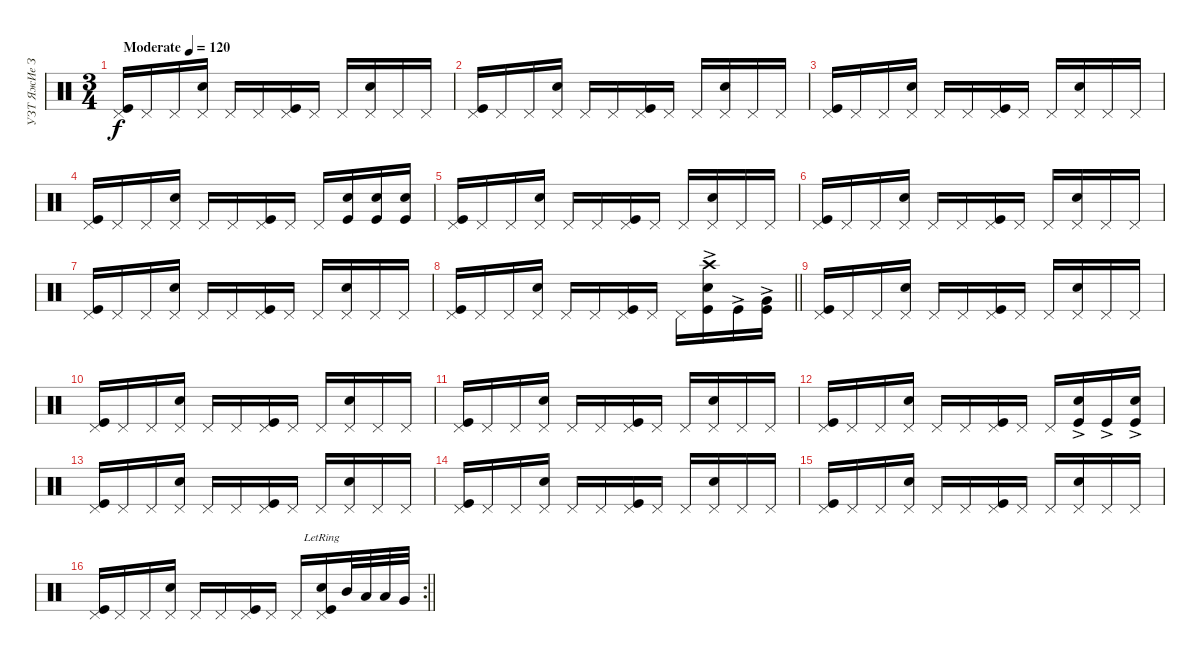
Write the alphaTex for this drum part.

\track ("УЗТ ЯжИе Зн" "УЗТ ЯжИе З") {instrument percussion}
\staff {score}
\articulation defaults
\ts (3 4)
\tempo (120 "Moderate")
\clef neutral
\ks c
("Pedal Hi-Hat (hit)" "Kick (hit)").16{dy f} "Pedal Hi-Hat (hit)".16 "Pedal Hi-Hat (hit)".16 ("Pedal Hi-Hat (hit)" "Snare (hit) 2").16 "Pedal Hi-Hat (hit)".16 "Pedal Hi-Hat (hit)".16 ("Pedal Hi-Hat (hit)" "Kick (hit)").16 "Pedal Hi-Hat (hit)".16 "Pedal Hi-Hat (hit)".16 ("Pedal Hi-Hat (hit)" "Snare (hit) 2").16 "Pedal Hi-Hat (hit)".16 "Pedal Hi-Hat (hit)".16 |
("Pedal Hi-Hat (hit)" "Kick (hit)").16 "Pedal Hi-Hat (hit)".16 "Pedal Hi-Hat (hit)".16 ("Pedal Hi-Hat (hit)" "Snare (hit) 2").16 "Pedal Hi-Hat (hit)".16 "Pedal Hi-Hat (hit)".16 ("Pedal Hi-Hat (hit)" "Kick (hit)").16 "Pedal Hi-Hat (hit)".16 "Pedal Hi-Hat (hit)".16 ("Pedal Hi-Hat (hit)" "Snare (hit) 2").16 "Pedal Hi-Hat (hit)".16 "Pedal Hi-Hat (hit)".16 |
("Pedal Hi-Hat (hit)" "Kick (hit)").16 "Pedal Hi-Hat (hit)".16 "Pedal Hi-Hat (hit)".16 ("Pedal Hi-Hat (hit)" "Snare (hit) 2").16 "Pedal Hi-Hat (hit)".16 "Pedal Hi-Hat (hit)".16 ("Pedal Hi-Hat (hit)" "Kick (hit)").16 "Pedal Hi-Hat (hit)".16 "Pedal Hi-Hat (hit)".16 ("Pedal Hi-Hat (hit)" "Snare (hit) 2").16 "Pedal Hi-Hat (hit)".16 "Pedal Hi-Hat (hit)".16 |
("Pedal Hi-Hat (hit)" "Kick (hit)").16 "Pedal Hi-Hat (hit)".16 "Pedal Hi-Hat (hit)".16 ("Pedal Hi-Hat (hit)" "Snare (hit) 2").16 "Pedal Hi-Hat (hit)".16 "Pedal Hi-Hat (hit)".16 ("Pedal Hi-Hat (hit)" "Kick (hit)").16 "Pedal Hi-Hat (hit)".16 "Pedal Hi-Hat (hit)".16 ("Snare (hit) 2" "Kick (hit)").16 ("Snare (hit) 2" "Kick (hit)").16 ("Snare (hit) 2" "Kick (hit)").16 |
("Pedal Hi-Hat (hit)" "Kick (hit)").16 "Pedal Hi-Hat (hit)".16 "Pedal Hi-Hat (hit)".16 ("Pedal Hi-Hat (hit)" "Snare (hit) 2").16 "Pedal Hi-Hat (hit)".16 "Pedal Hi-Hat (hit)".16 ("Pedal Hi-Hat (hit)" "Kick (hit)").16 "Pedal Hi-Hat (hit)".16 "Pedal Hi-Hat (hit)".16 ("Pedal Hi-Hat (hit)" "Snare (hit) 2").16 "Pedal Hi-Hat (hit)".16 "Pedal Hi-Hat (hit)".16 |
("Pedal Hi-Hat (hit)" "Kick (hit)").16 "Pedal Hi-Hat (hit)".16 "Pedal Hi-Hat (hit)".16 ("Pedal Hi-Hat (hit)" "Snare (hit) 2").16 "Pedal Hi-Hat (hit)".16 "Pedal Hi-Hat (hit)".16 ("Pedal Hi-Hat (hit)" "Kick (hit)").16 "Pedal Hi-Hat (hit)".16 "Pedal Hi-Hat (hit)".16 ("Pedal Hi-Hat (hit)" "Snare (hit) 2").16 "Pedal Hi-Hat (hit)".16 "Pedal Hi-Hat (hit)".16 |
("Pedal Hi-Hat (hit)" "Kick (hit)").16 "Pedal Hi-Hat (hit)".16 "Pedal Hi-Hat (hit)".16 ("Pedal Hi-Hat (hit)" "Snare (hit) 2").16 "Pedal Hi-Hat (hit)".16 "Pedal Hi-Hat (hit)".16 ("Pedal Hi-Hat (hit)" "Kick (hit)").16 "Pedal Hi-Hat (hit)".16 "Pedal Hi-Hat (hit)".16 ("Pedal Hi-Hat (hit)" "Snare (hit) 2").16 "Pedal Hi-Hat (hit)".16 "Pedal Hi-Hat (hit)".16 |
\barLineRight lightlight
("Pedal Hi-Hat (hit)" "Kick (hit)").16 "Pedal Hi-Hat (hit)".16 "Pedal Hi-Hat (hit)".16 ("Pedal Hi-Hat (hit)" "Snare (hit) 2").16 "Pedal Hi-Hat (hit)".16 "Pedal Hi-Hat (hit)".16 ("Pedal Hi-Hat (hit)" "Kick (hit)").16 "Pedal Hi-Hat (hit)".16 "Pedal Hi-Hat (hit)".16 ("Crash high (hit)" "Snare (hit) 2"{ac} "Kick (hit)").16 "Kick (hit)"{ac}.16 ("Very Low Tom (hit)"{ac} "Kick (hit)").16 |
("Pedal Hi-Hat (hit)" "Kick (hit)").16 "Pedal Hi-Hat (hit)".16 "Pedal Hi-Hat (hit)".16 ("Pedal Hi-Hat (hit)" "Snare (hit) 2").16 "Pedal Hi-Hat (hit)".16 "Pedal Hi-Hat (hit)".16 ("Pedal Hi-Hat (hit)" "Kick (hit)").16 "Pedal Hi-Hat (hit)".16 "Pedal Hi-Hat (hit)".16 ("Pedal Hi-Hat (hit)" "Snare (hit) 2").16 "Pedal Hi-Hat (hit)".16 "Pedal Hi-Hat (hit)".16 |
("Pedal Hi-Hat (hit)" "Kick (hit)").16 "Pedal Hi-Hat (hit)".16 "Pedal Hi-Hat (hit)".16 ("Pedal Hi-Hat (hit)" "Snare (hit) 2").16 "Pedal Hi-Hat (hit)".16 "Pedal Hi-Hat (hit)".16 ("Pedal Hi-Hat (hit)" "Kick (hit)").16 "Pedal Hi-Hat (hit)".16 "Pedal Hi-Hat (hit)".16 ("Pedal Hi-Hat (hit)" "Snare (hit) 2").16 "Pedal Hi-Hat (hit)".16 "Pedal Hi-Hat (hit)".16 |
("Pedal Hi-Hat (hit)" "Kick (hit)").16 "Pedal Hi-Hat (hit)".16 "Pedal Hi-Hat (hit)".16 ("Pedal Hi-Hat (hit)" "Snare (hit) 2").16 "Pedal Hi-Hat (hit)".16 "Pedal Hi-Hat (hit)".16 ("Pedal Hi-Hat (hit)" "Kick (hit)").16 "Pedal Hi-Hat (hit)".16 "Pedal Hi-Hat (hit)".16 ("Pedal Hi-Hat (hit)" "Snare (hit) 2").16 "Pedal Hi-Hat (hit)".16 "Pedal Hi-Hat (hit)".16 |
("Pedal Hi-Hat (hit)" "Kick (hit)").16 "Pedal Hi-Hat (hit)".16 "Pedal Hi-Hat (hit)".16 ("Pedal Hi-Hat (hit)" "Snare (hit) 2").16 "Pedal Hi-Hat (hit)".16 "Pedal Hi-Hat (hit)".16 ("Pedal Hi-Hat (hit)" "Kick (hit)").16 "Pedal Hi-Hat (hit)".16 "Pedal Hi-Hat (hit)".16 ("Snare (hit) 2"{ac} "Kick (hit)").16 "Kick (hit)"{ac}.16 ("Snare (hit) 2"{ac} "Kick (hit)").16 |
("Pedal Hi-Hat (hit)" "Kick (hit)").16 "Pedal Hi-Hat (hit)".16 "Pedal Hi-Hat (hit)".16 ("Pedal Hi-Hat (hit)" "Snare (hit) 2").16 "Pedal Hi-Hat (hit)".16 "Pedal Hi-Hat (hit)".16 ("Pedal Hi-Hat (hit)" "Kick (hit)").16 "Pedal Hi-Hat (hit)".16 "Pedal Hi-Hat (hit)".16 ("Pedal Hi-Hat (hit)" "Snare (hit) 2").16 "Pedal Hi-Hat (hit)".16 "Pedal Hi-Hat (hit)".16 |
("Pedal Hi-Hat (hit)" "Kick (hit)").16 "Pedal Hi-Hat (hit)".16 "Pedal Hi-Hat (hit)".16 ("Pedal Hi-Hat (hit)" "Snare (hit) 2").16 "Pedal Hi-Hat (hit)".16 "Pedal Hi-Hat (hit)".16 ("Pedal Hi-Hat (hit)" "Kick (hit)").16 "Pedal Hi-Hat (hit)".16 "Pedal Hi-Hat (hit)".16 ("Pedal Hi-Hat (hit)" "Snare (hit) 2").16 "Pedal Hi-Hat (hit)".16 "Pedal Hi-Hat (hit)".16 |
("Pedal Hi-Hat (hit)" "Kick (hit)").16 "Pedal Hi-Hat (hit)".16 "Pedal Hi-Hat (hit)".16 ("Pedal Hi-Hat (hit)" "Snare (hit) 2").16 "Pedal Hi-Hat (hit)".16 "Pedal Hi-Hat (hit)".16 ("Pedal Hi-Hat (hit)" "Kick (hit)").16 "Pedal Hi-Hat (hit)".16 "Pedal Hi-Hat (hit)".16 ("Pedal Hi-Hat (hit)" "Snare (hit) 2").16 "Pedal Hi-Hat (hit)".16 "Pedal Hi-Hat (hit)".16 |
\rc 2
\barLineRight lightlight
("Pedal Hi-Hat (hit)" "Kick (hit)").16 "Pedal Hi-Hat (hit)".16 "Pedal Hi-Hat (hit)".16 ("Pedal Hi-Hat (hit)" "Snare (hit) 2").16 "Pedal Hi-Hat (hit)".16 "Pedal Hi-Hat (hit)".16 ("Pedal Hi-Hat (hit)" "Kick (hit)").16 "Pedal Hi-Hat (hit)".16 "Pedal Hi-Hat (hit)".16 ("Pedal Hi-Hat (hit)" "Snare (hit) 2"{lr} "Kick (hit)").16 "Mid Tom (hit)".32 "Low Tom (hit)".32 "Low Tom (hit)".32 "Very Low Tom (hit)".32
